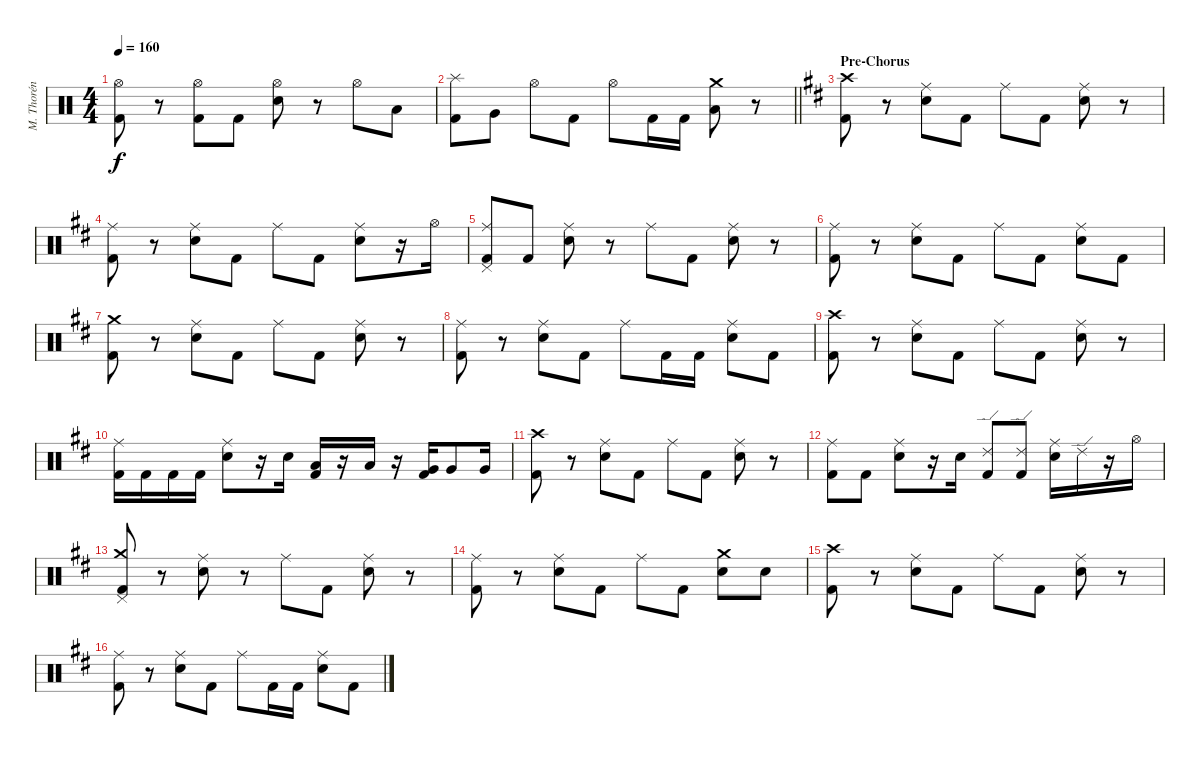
\track ("M. Thorén (Drums)" "M. Thorén ") {instrument percussion}
\staff {score}
\articulation defaults
\ts (4 4)
\tempo 160
\clef neutral
\ks c
("Hi-Hat (open)" "Kick (hit) 2").8{dy f} r.8 ("Hi-Hat (open)" "Kick (hit) 2").8 "Kick (hit) 2".8 ("Hi-Hat (open)" "Electric Snare (hit)").8 r.8 "Hi-Hat (open)".8 "Low Tom (hit)".8 |
\barLineRight lightlight
("Splash (hit)" "Kick (hit) 2").8 "Very Low Tom (hit)".8 "Hi-Hat (open)".8 "Kick (hit) 2".8 "Hi-Hat (open)".8 "Kick (hit) 2".16 "Kick (hit) 2".16 ("Crash medium (hit)" "Low Floor Tom (hit)").8 r.8 |
\section ("" "Pre-Chorus")
\ks bminor
("Crash high (hit)" "Kick (hit) 2").8 r.8 ("Ride (middle)" "Electric Snare (hit)").8 "Kick (hit) 2".8 "Ride (middle)".8 "Kick (hit) 2".8 ("Ride (middle)" "Electric Snare (hit)").8 r.8 |
("Ride (middle)" "Kick (hit) 2").8 r.8 ("Ride (middle)" "Electric Snare (hit)").8 "Kick (hit) 2".8 "Ride (middle)".8 "Kick (hit) 2".8 ("Ride (middle)" "Electric Snare (hit)").8 r.16 "Hi-Hat (open)".16 |
("Ride (middle)" "Pedal Hi-Hat (hit)" "Kick (hit) 2").8 "Kick (hit) 2".8 ("Ride (middle)" "Electric Snare (hit)").8 r.8 "Ride (middle)".8 "Kick (hit) 2".8 ("Ride (middle)" "Electric Snare (hit)").8 r.8 |
("Ride (middle)" "Kick (hit) 2").8 r.8 ("Ride (middle)" "Electric Snare (hit)").8 "Kick (hit) 2".8 "Ride (middle)".8 "Kick (hit) 2".8 ("Ride (middle)" "Electric Snare (hit)").8 "Kick (hit) 2".8 |
("Crash medium (hit)" "Kick (hit) 2").8 r.8 ("Ride (middle)" "Electric Snare (hit)").8 "Kick (hit) 2".8 "Ride (middle)".8 "Kick (hit) 2".8 ("Ride (middle)" "Electric Snare (hit)").8 r.8 |
("Ride (middle)" "Kick (hit) 2").8 r.8 ("Ride (middle)" "Electric Snare (hit)").8 "Kick (hit) 2".8 "Ride (middle)".8 "Kick (hit) 2".16 "Kick (hit) 2".16 ("Ride (middle)" "Electric Snare (hit)").8 "Kick (hit) 2".8 |
("Crash high (hit)" "Kick (hit) 2").8 r.8 ("Ride (middle)" "Electric Snare (hit)").8 "Kick (hit) 2".8 "Ride (middle)".8 "Kick (hit) 2".8 ("Ride (middle)" "Electric Snare (hit)").8 r.8 |
("Ride (middle)" "Kick (hit) 2").16 "Kick (hit) 2".16 "Kick (hit) 2".16 "Kick (hit) 2".16 ("Ride (middle)" "Electric Snare (hit)").8 r.16 "Electric Snare (hit)".16 ("Low Tom (hit)" "Kick (hit) 2").16 r.16 "Low Tom (hit)".16 r.16 ("Very Low Tom (hit)" "Kick (hit) 2").16 "Very Low Tom (hit)".8 "Very Low Tom (hit)".16 |
("Crash high (hit)" "Kick (hit) 2").8 r.8 ("Ride (middle)" "Electric Snare (hit)").8 "Kick (hit) 2".8 "Ride (middle)".8 "Kick (hit) 2".8 ("Ride (middle)" "Electric Snare (hit)").8 r.8 |
("Ride (middle)" "Kick (hit) 2").8 "Kick (hit) 2".8 ("Ride (middle)" "Electric Snare (hit)").8 r.16 "Electric Snare (hit)".16 ("Ride (edge) 2" "Kick (hit) 2").8 ("Ride (edge) 2" "Kick (hit) 2").8 ("Ride (middle)" "Electric Snare (hit)").16 "Ride (edge) 2".16 r.16 "Hi-Hat (open)".16 |
("Crash medium (hit)" "Pedal Hi-Hat (hit)" "Kick (hit) 2").8 r.8 ("Ride (middle)" "Electric Snare (hit)").8 r.8 "Ride (middle)".8 "Kick (hit) 2".8 ("Ride (middle)" "Electric Snare (hit)").8 r.8 |
("Ride (middle)" "Kick (hit) 2").8 r.8 ("Ride (middle)" "Electric Snare (hit)").8 "Kick (hit) 2".8 "Ride (middle)".8 "Kick (hit) 2".8 ("Crash medium (hit)" "Electric Snare (hit)").8 "Electric Snare (hit)".8 |
("Crash high (hit)" "Kick (hit) 2").8 r.8 ("Ride (middle)" "Electric Snare (hit)").8 "Kick (hit) 2".8 "Ride (middle)".8 "Kick (hit) 2".8 ("Ride (middle)" "Electric Snare (hit)").8 r.8 |
("Ride (middle)" "Kick (hit) 2").8 r.8 ("Ride (middle)" "Electric Snare (hit)").8 "Kick (hit) 2".8 "Ride (middle)".8 "Kick (hit) 2".16 "Kick (hit) 2".16 ("Ride (middle)" "Electric Snare (hit)").8 "Kick (hit) 2".8
